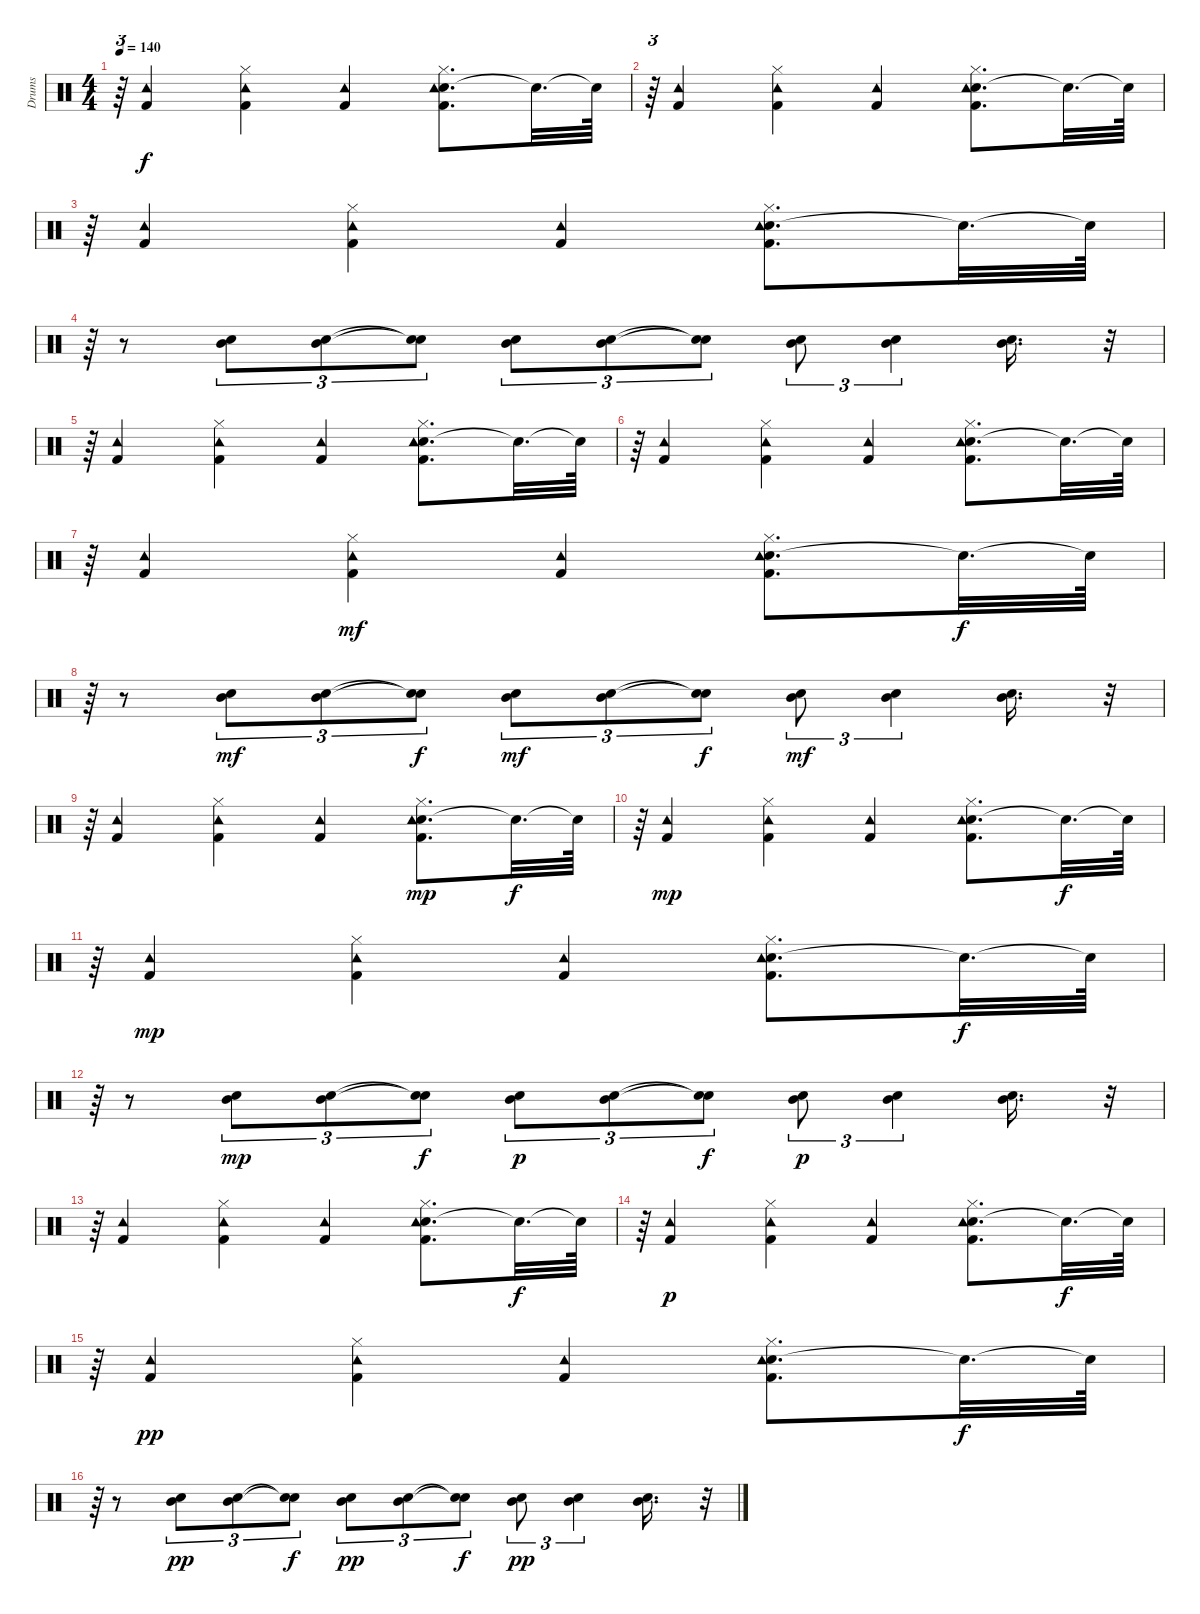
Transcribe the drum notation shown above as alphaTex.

\track ("Drums" "Drums") {instrument percussion}
\staff {score}
\articulation defaults
\ts (4 4)
\tempo 140
\clef neutral
\ks c
r.64{tu (3 2) dy f} ("Tambourine (hit)" "Kick (hit) 2").4 ("Hi-Hat (closed)" "Tambourine (hit)" "Kick (hit) 2").4 ("Tambourine (hit)" "Kick (hit) 2").4 ("Electric Snare (hit)" "Hi-Hat (closed)" "Tambourine (hit)" "Kick (hit) 2").8{d} "Snare (hit)"{t}.32{d} "Snare (hit)"{t}.64 |
r.64{tu (3 2)} ("Tambourine (hit)" "Kick (hit) 2").4 ("Hi-Hat (closed)" "Tambourine (hit)" "Kick (hit) 2").4 ("Tambourine (hit)" "Kick (hit) 2").4 ("Electric Snare (hit)" "Hi-Hat (closed)" "Tambourine (hit)" "Kick (hit) 2").8{d} "Snare (hit)"{t}.32{d} "Snare (hit)"{t}.64 |
r.64{tu (3 2)} ("Tambourine (hit)" "Kick (hit) 2").4 ("Hi-Hat (closed)" "Tambourine (hit)" "Kick (hit) 2").4 ("Tambourine (hit)" "Kick (hit) 2").4 ("Electric Snare (hit)" "Hi-Hat (closed)" "Tambourine (hit)" "Kick (hit) 2").8{d} "Snare (hit)"{t}.32{d} "Snare (hit)"{t}.64 |
r.64{tu (3 2)} r.8 ("Mid Tom (hit)" "Electric Snare (hit)").8{tu (3 2)} ("Mid Tom (hit)" "Electric Snare (hit)").8{tu (3 2)} ("Snare (hit)"{t} "Snare (hit)"{t}).8{tu (3 2)} ("Mid Tom (hit)" "Electric Snare (hit)").8{tu (3 2)} ("Mid Tom (hit)" "Electric Snare (hit)").8{tu (3 2)} ("Snare (hit)"{t} "Snare (hit)"{t}).8{tu (3 2)} ("Mid Tom (hit)" "Electric Snare (hit)").8{tu (3 2)} ("Mid Tom (hit)" "Electric Snare (hit)").4{tu (3 2)} ("Mid Tom (hit)" "Electric Snare (hit)").16{d} r.32{tu (3 2)} |
r.64{tu (3 2)} ("Tambourine (hit)" "Kick (hit) 2").4 ("Hi-Hat (closed)" "Tambourine (hit)" "Kick (hit) 2").4 ("Tambourine (hit)" "Kick (hit) 2").4 ("Electric Snare (hit)" "Hi-Hat (closed)" "Tambourine (hit)" "Kick (hit) 2").8{d} "Snare (hit)"{t}.32{d} "Snare (hit)"{t}.64 |
r.64{tu (3 2)} ("Tambourine (hit)" "Kick (hit) 2").4 ("Hi-Hat (closed)" "Tambourine (hit)" "Kick (hit) 2").4 ("Tambourine (hit)" "Kick (hit) 2").4 ("Electric Snare (hit)" "Hi-Hat (closed)" "Tambourine (hit)" "Kick (hit) 2").8{d} "Snare (hit)"{t}.32{d} "Snare (hit)"{t}.64 |
r.64{tu (3 2)} ("Tambourine (hit)" "Kick (hit) 2").4 ("Hi-Hat (closed)" "Tambourine (hit)" "Kick (hit) 2").4{dy mf} ("Tambourine (hit)" "Kick (hit) 2").4 ("Electric Snare (hit)" "Hi-Hat (closed)" "Tambourine (hit)" "Kick (hit) 2").8{d} "Snare (hit)"{t}.32{d dy f} "Snare (hit)"{t}.64 |
r.64{tu (3 2)} r.8 ("Mid Tom (hit)" "Electric Snare (hit)").8{tu (3 2) dy mf} ("Mid Tom (hit)" "Electric Snare (hit)").8{tu (3 2)} ("Snare (hit)"{t} "Snare (hit)"{t}).8{tu (3 2) dy f} ("Mid Tom (hit)" "Electric Snare (hit)").8{tu (3 2) dy mf} ("Mid Tom (hit)" "Electric Snare (hit)").8{tu (3 2)} ("Snare (hit)"{t} "Snare (hit)"{t}).8{tu (3 2) dy f} ("Mid Tom (hit)" "Electric Snare (hit)").8{tu (3 2) dy mf} ("Mid Tom (hit)" "Electric Snare (hit)").4{tu (3 2)} ("Mid Tom (hit)" "Electric Snare (hit)").16{d} r.32{tu (3 2)} |
r.64{tu (3 2)} ("Tambourine (hit)" "Kick (hit) 2").4 ("Hi-Hat (closed)" "Tambourine (hit)" "Kick (hit) 2").4 ("Tambourine (hit)" "Kick (hit) 2").4 ("Electric Snare (hit)" "Hi-Hat (closed)" "Tambourine (hit)" "Kick (hit) 2").8{d dy mp} "Snare (hit)"{t}.32{d dy f} "Snare (hit)"{t}.64 |
r.64{tu (3 2)} ("Tambourine (hit)" "Kick (hit) 2").4{dy mp} ("Hi-Hat (closed)" "Tambourine (hit)" "Kick (hit) 2").4 ("Tambourine (hit)" "Kick (hit) 2").4 ("Electric Snare (hit)" "Hi-Hat (closed)" "Tambourine (hit)" "Kick (hit) 2").8{d} "Snare (hit)"{t}.32{d dy f} "Snare (hit)"{t}.64 |
r.64{tu (3 2)} ("Tambourine (hit)" "Kick (hit) 2").4{dy mp} ("Hi-Hat (closed)" "Tambourine (hit)" "Kick (hit) 2").4 ("Tambourine (hit)" "Kick (hit) 2").4 ("Electric Snare (hit)" "Hi-Hat (closed)" "Tambourine (hit)" "Kick (hit) 2").8{d} "Snare (hit)"{t}.32{d dy f} "Snare (hit)"{t}.64 |
r.64{tu (3 2)} r.8 ("Mid Tom (hit)" "Electric Snare (hit)").8{tu (3 2) dy mp} ("Mid Tom (hit)" "Electric Snare (hit)").8{tu (3 2)} ("Snare (hit)"{t} "Snare (hit)"{t}).8{tu (3 2) dy f} ("Mid Tom (hit)" "Electric Snare (hit)").8{tu (3 2) dy p} ("Mid Tom (hit)" "Electric Snare (hit)").8{tu (3 2)} ("Snare (hit)"{t} "Snare (hit)"{t}).8{tu (3 2) dy f} ("Mid Tom (hit)" "Electric Snare (hit)").8{tu (3 2) dy p} ("Mid Tom (hit)" "Electric Snare (hit)").4{tu (3 2)} ("Mid Tom (hit)" "Electric Snare (hit)").16{d} r.32{tu (3 2)} |
r.64{tu (3 2)} ("Tambourine (hit)" "Kick (hit) 2").4 ("Hi-Hat (closed)" "Tambourine (hit)" "Kick (hit) 2").4 ("Tambourine (hit)" "Kick (hit) 2").4 ("Electric Snare (hit)" "Hi-Hat (closed)" "Tambourine (hit)" "Kick (hit) 2").8{d} "Snare (hit)"{t}.32{d dy f} "Snare (hit)"{t}.64 |
r.64{tu (3 2)} ("Tambourine (hit)" "Kick (hit) 2").4{dy p} ("Hi-Hat (closed)" "Tambourine (hit)" "Kick (hit) 2").4 ("Tambourine (hit)" "Kick (hit) 2").4 ("Electric Snare (hit)" "Hi-Hat (closed)" "Tambourine (hit)" "Kick (hit) 2").8{d} "Snare (hit)"{t}.32{d dy f} "Snare (hit)"{t}.64 |
r.64{tu (3 2)} ("Tambourine (hit)" "Kick (hit) 2").4{dy pp} ("Hi-Hat (closed)" "Tambourine (hit)" "Kick (hit) 2").4 ("Tambourine (hit)" "Kick (hit) 2").4 ("Electric Snare (hit)" "Hi-Hat (closed)" "Tambourine (hit)" "Kick (hit) 2").8{d} "Snare (hit)"{t}.32{d dy f} "Snare (hit)"{t}.64 |
r.64{tu (3 2)} r.8 ("Mid Tom (hit)" "Electric Snare (hit)").8{tu (3 2) dy pp} ("Mid Tom (hit)" "Electric Snare (hit)").8{tu (3 2)} ("Snare (hit)"{t} "Snare (hit)"{t}).8{tu (3 2) dy f} ("Mid Tom (hit)" "Electric Snare (hit)").8{tu (3 2) dy pp} ("Mid Tom (hit)" "Electric Snare (hit)").8{tu (3 2)} ("Snare (hit)"{t} "Snare (hit)"{t}).8{tu (3 2) dy f} ("Mid Tom (hit)" "Electric Snare (hit)").8{tu (3 2) dy pp} ("Mid Tom (hit)" "Electric Snare (hit)").4{tu (3 2)} ("Mid Tom (hit)" "Electric Snare (hit)").16{d} r.32{tu (3 2)}
